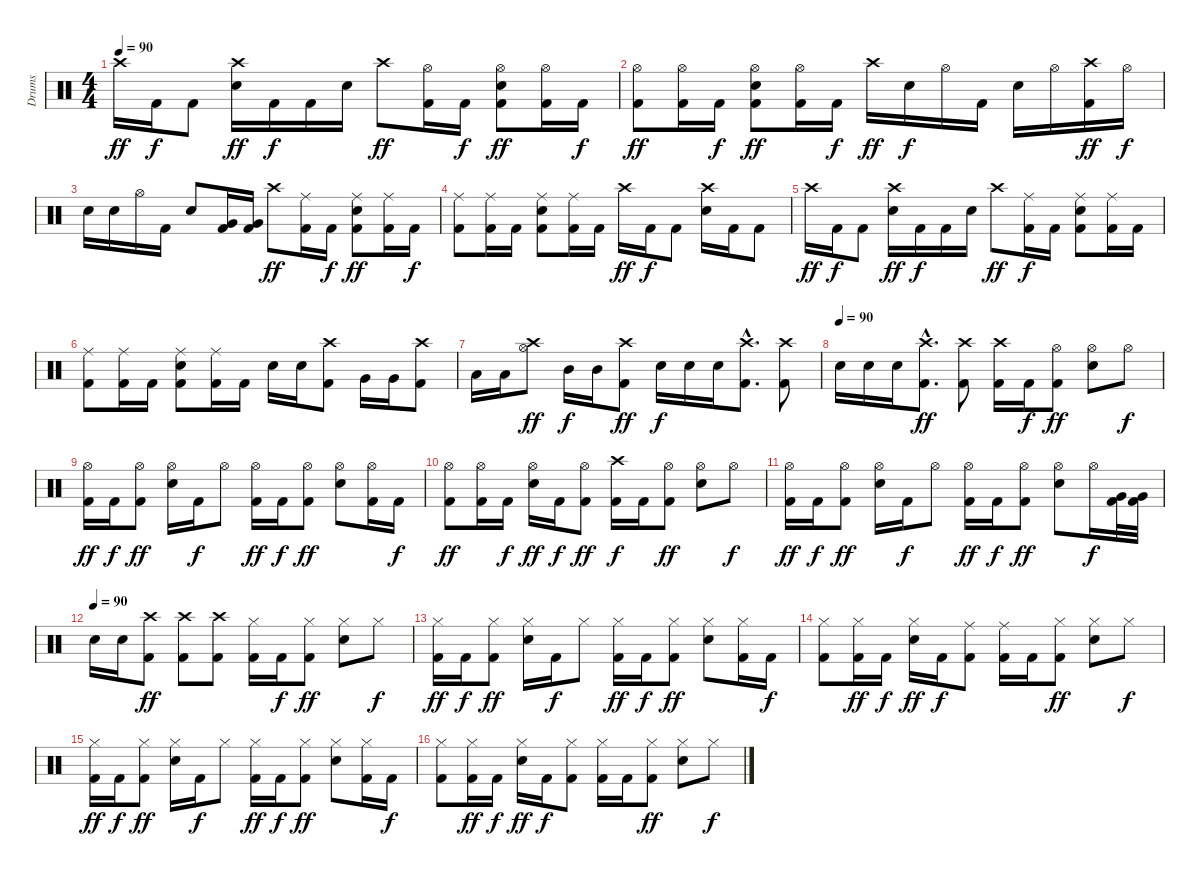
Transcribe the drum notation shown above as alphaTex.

\track ("Drums" "Drums") {instrument percussion}
\staff {score}
\articulation defaults
\ts (4 4)
\tempo 90
\clef neutral
\ks c "Crash high (hit)".16{dy ff} "Kick (hit) 2".16{dy f} "Kick (hit) 2".8
("Crash high (hit)" "Electric Snare (hit)").16{dy ff} "Kick (hit) 2".16{dy f} "Kick (hit) 2".16 "Electric Snare (hit)".16 "Crash high (hit)".8{dy ff} ("Hi-Hat (open)" "Kick (hit) 2").16 "Kick (hit) 2".16{dy f} ("Hi-Hat (open)" "Electric Snare (hit)" "Kick (hit) 2").8{dy ff} ("Hi-Hat (open)" "Kick (hit) 2").16 "Kick (hit) 2".16{dy f} |
("Hi-Hat (open)" "Kick (hit) 2").8{dy ff} ("Hi-Hat (open)" "Kick (hit) 2").16 "Kick (hit) 2".16{dy f} ("Hi-Hat (open)" "Electric Snare (hit)" "Kick (hit) 2").8{dy ff} ("Hi-Hat (open)" "Kick (hit) 2").16 "Kick (hit) 2".16{dy f} "Crash high (hit)".16{dy ff} "Electric Snare (hit)".16{dy f} "Hi-Hat (open)".16 "Kick (hit) 2".16 "Electric Snare (hit)".16 "Hi-Hat (open)".16 ("Crash high (hit)" "Kick (hit) 2").16{dy ff} "Hi-Hat (open)".16{dy f} |
"Electric Snare (hit)".16 "Electric Snare (hit)".16 "Hi-Hat (open)".16 "Kick (hit) 2".16 "Electric Snare (hit)".8 ("Very Low Tom (hit)" "Kick (hit) 2").16 ("Very Low Tom (hit)" "Kick (hit) 2").16 "Crash high (hit)".8{dy ff} ("Ride (middle)" "Kick (hit) 2").16 "Kick (hit) 2".16{dy f} ("Ride (middle)" "Electric Snare (hit)" "Kick (hit) 2").8{dy ff} ("Ride (middle)" "Kick (hit) 2").16 "Kick (hit) 2".16{dy f} |
("Ride (middle)" "Kick (hit) 2").8 ("Ride (middle)" "Kick (hit) 2").16 "Kick (hit) 2".16 ("Ride (middle)" "Electric Snare (hit)" "Kick (hit) 2").8 ("Ride (middle)" "Kick (hit) 2").16 "Kick (hit) 2".16 "Crash high (hit)".16{dy ff} "Kick (hit) 2".16{dy f} "Kick (hit) 2".8 ("Crash high (hit)" "Electric Snare (hit)").16 "Kick (hit) 2".16 "Kick (hit) 2".8 |
"Crash high (hit)".16{dy ff} "Kick (hit) 2".16{dy f} "Kick (hit) 2".8 ("Crash high (hit)" "Electric Snare (hit)").16{dy ff} "Kick (hit) 2".16{dy f} "Kick (hit) 2".16 "Electric Snare (hit)".16 "Crash high (hit)".8{dy ff} ("Ride (middle)" "Kick (hit) 2").16{dy f} "Kick (hit) 2".16 ("Ride (middle)" "Electric Snare (hit)" "Kick (hit) 2").8 ("Ride (middle)" "Kick (hit) 2").16 "Kick (hit) 2".16 |
("Ride (middle)" "Kick (hit) 2").8 ("Ride (middle)" "Kick (hit) 2").16 "Kick (hit) 2".16 ("Ride (middle)" "Electric Snare (hit)" "Kick (hit) 2").8 ("Ride (middle)" "Kick (hit) 2").16 "Kick (hit) 2".16 "Electric Snare (hit)".16 "Electric Snare (hit)".16 ("Crash high (hit)" "Kick (hit) 2").8 "Very Low Tom (hit)".16 "Very Low Tom (hit)".16 ("Crash high (hit)" "Kick (hit) 2").8 |
"Low Tom (hit)".16 "Low Tom (hit)".16 ("Crash high (hit)" "Hi-Hat (open)").8{dy ff} "Mid Tom (hit)".16{dy f} "Mid Tom (hit)".16 ("Crash high (hit)" "Kick (hit) 2").8{dy ff} "Electric Snare (hit)".16{dy f} "Electric Snare (hit)".16 "Electric Snare (hit)".16 ("Crash high (hit)"{hac} "Kick (hit) 2"{hac}).8{d} ("Crash high (hit)" "Kick (hit) 2").8 |
\tempo (90)
"Electric Snare (hit)".16 "Electric Snare (hit)".16 "Electric Snare (hit)".16 ("Crash high (hit)"{hac} "Kick (hit) 2"{hac}).8{d dy ff} ("Crash high (hit)" "Kick (hit) 2").8 ("Crash high (hit)" "Kick (hit) 2").16 "Kick (hit) 2".16{dy f} ("Hi-Hat (open)" "Kick (hit) 2").8{dy ff} ("Hi-Hat (open)" "Electric Snare (hit)").8 "Hi-Hat (open)".8{dy f} |
("Hi-Hat (open)" "Kick (hit) 2").16{dy ff} "Kick (hit) 2".16{dy f} ("Hi-Hat (open)" "Kick (hit) 2").8{dy ff} ("Hi-Hat (open)" "Electric Snare (hit)").16 "Kick (hit) 2".16{dy f} "Hi-Hat (open)".8 ("Hi-Hat (open)" "Kick (hit) 2").16{dy ff} "Kick (hit) 2".16{dy f} ("Hi-Hat (open)" "Kick (hit) 2").8{dy ff} ("Hi-Hat (open)" "Electric Snare (hit)").8 ("Hi-Hat (open)" "Kick (hit) 2").16 "Kick (hit) 2".16{dy f} |
("Hi-Hat (open)" "Kick (hit) 2").8{dy ff} ("Hi-Hat (open)" "Kick (hit) 2").16 "Kick (hit) 2".16{dy f} ("Hi-Hat (open)" "Electric Snare (hit)").16{dy ff} "Kick (hit) 2".16{dy f} ("Hi-Hat (open)" "Kick (hit) 2").8{dy ff} ("Crash high (hit)" "Kick (hit) 2").16{dy f} "Kick (hit) 2".16 ("Hi-Hat (open)" "Kick (hit) 2").8{dy ff} ("Hi-Hat (open)" "Electric Snare (hit)").8 "Hi-Hat (open)".8{dy f} |
("Hi-Hat (open)" "Kick (hit) 2").16{dy ff} "Kick (hit) 2".16{dy f} ("Hi-Hat (open)" "Kick (hit) 2").8{dy ff} ("Hi-Hat (open)" "Electric Snare (hit)").16 "Kick (hit) 2".16{dy f} "Hi-Hat (open)".8 ("Hi-Hat (open)" "Kick (hit) 2").16{dy ff} "Kick (hit) 2".16{dy f} ("Hi-Hat (open)" "Kick (hit) 2").8{dy ff} ("Hi-Hat (open)" "Electric Snare (hit)").8 "Hi-Hat (open)".16{dy f} ("Very Low Tom (hit)" "Kick (hit) 2").32 ("Very Low Tom (hit)" "Kick (hit) 2").32 |
\tempo (90)
"Electric Snare (hit)".16 "Electric Snare (hit)".16 ("Crash high (hit)" "Kick (hit) 2").8{dy ff} ("Crash high (hit)" "Kick (hit) 2").8 ("Crash high (hit)" "Kick (hit) 2").8 ("Hi-Hat (closed)" "Kick (hit) 2").16 "Kick (hit) 2".16{dy f} ("Hi-Hat (closed)" "Kick (hit) 2").8{dy ff} ("Hi-Hat (closed)" "Electric Snare (hit)").8 "Hi-Hat (closed)".8{dy f} |
("Hi-Hat (closed)" "Kick (hit) 2").16{dy ff} "Kick (hit) 2".16{dy f} ("Hi-Hat (closed)" "Kick (hit) 2").8{dy ff} ("Hi-Hat (closed)" "Electric Snare (hit)").16 "Kick (hit) 2".16{dy f} "Hi-Hat (closed)".8 ("Hi-Hat (closed)" "Kick (hit) 2").16{dy ff} "Kick (hit) 2".16{dy f} ("Hi-Hat (closed)" "Kick (hit) 2").8{dy ff} ("Hi-Hat (closed)" "Electric Snare (hit)").8 ("Hi-Hat (closed)" "Kick (hit) 2").16 "Kick (hit) 2".16{dy f} |
("Hi-Hat (closed)" "Kick (hit) 2").8 ("Hi-Hat (closed)" "Kick (hit) 2").16{dy ff} "Kick (hit) 2".16{dy f} ("Hi-Hat (closed)" "Electric Snare (hit)").16{dy ff} "Kick (hit) 2".16{dy f} ("Ride (middle)" "Kick (hit) 2").8 ("Ride (middle)" "Kick (hit) 2").16 "Kick (hit) 2".16 ("Hi-Hat (closed)" "Kick (hit) 2").8{dy ff} ("Hi-Hat (closed)" "Electric Snare (hit)").8 "Hi-Hat (closed)".8{dy f} |
("Hi-Hat (closed)" "Kick (hit) 2").16{dy ff} "Kick (hit) 2".16{dy f} ("Hi-Hat (closed)" "Kick (hit) 2").8{dy ff} ("Hi-Hat (closed)" "Electric Snare (hit)").16 "Kick (hit) 2".16{dy f} "Hi-Hat (closed)".8 ("Hi-Hat (closed)" "Kick (hit) 2").16{dy ff} "Kick (hit) 2".16{dy f} ("Hi-Hat (closed)" "Kick (hit) 2").8{dy ff} ("Hi-Hat (closed)" "Electric Snare (hit)").8 ("Hi-Hat (closed)" "Kick (hit) 2").16 "Kick (hit) 2".16{dy f} |
("Hi-Hat (closed)" "Kick (hit) 2").8 ("Hi-Hat (closed)" "Kick (hit) 2").16{dy ff} "Kick (hit) 2".16{dy f} ("Hi-Hat (closed)" "Electric Snare (hit)").16{dy ff} "Kick (hit) 2".16{dy f} ("Hi-Hat (closed)" "Kick (hit) 2").8 ("Hi-Hat (closed)" "Kick (hit) 2").16 "Kick (hit) 2".16 ("Hi-Hat (closed)" "Kick (hit) 2").8{dy ff} ("Hi-Hat (closed)" "Electric Snare (hit)").8 "Hi-Hat (closed)".8{dy f}
